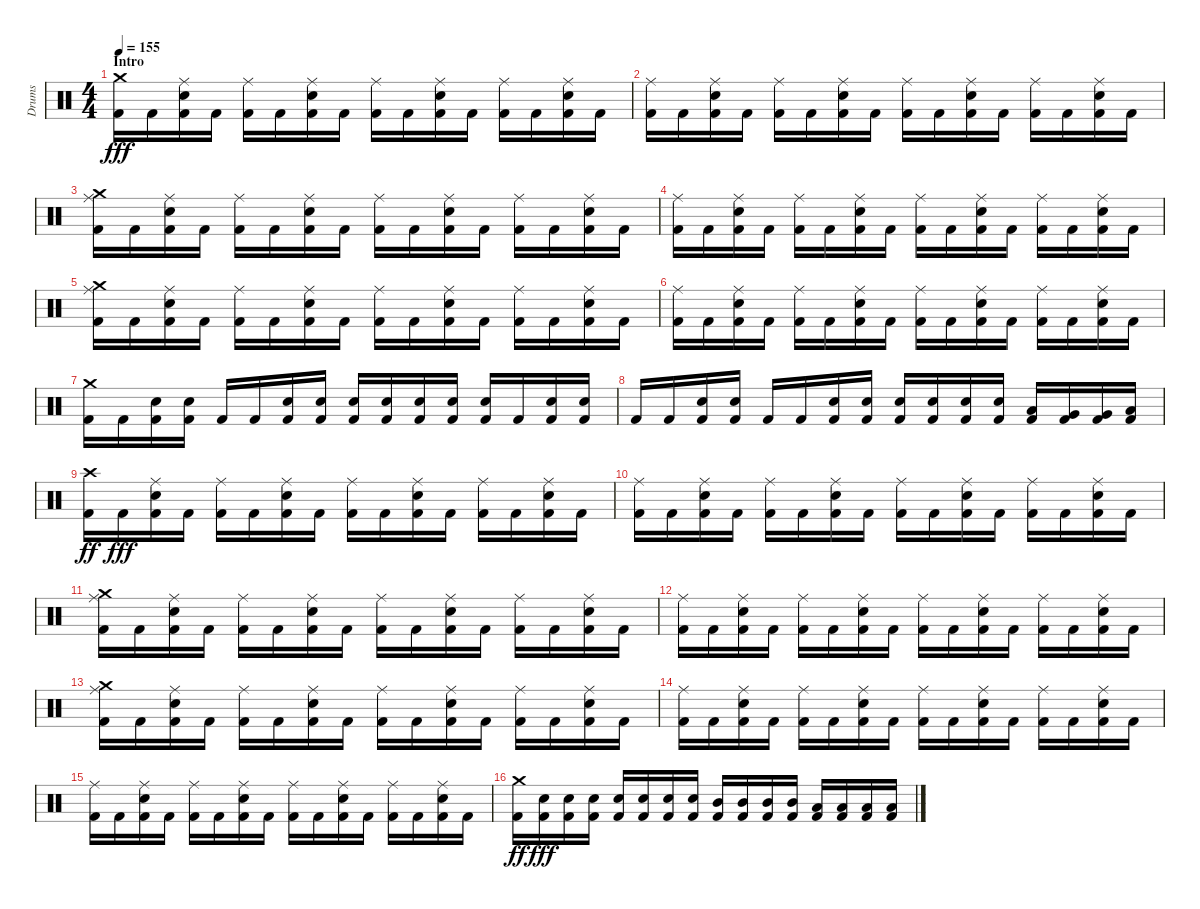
\track ("Drums" "Drums") {instrument percussion}
\staff {score}
\articulation defaults
\ts (4 4)
\section ("" "Intro")
\tempo 155
\clef neutral
\ks c
("Kick (hit) 2" "Crash medium (hit)").16{dy fff} "Kick (hit) 2".16 ("Kick (hit) 2" "Ride (middle)" "Snare (hit) 2").16 "Kick (hit) 2".16 ("Kick (hit) 2" "Ride (middle)").16 "Kick (hit) 2".16 ("Kick (hit) 2" "Ride (middle)" "Snare (hit) 2").16 "Kick (hit) 2".16 ("Kick (hit) 2" "Ride (middle)").16 "Kick (hit) 2".16 ("Kick (hit) 2" "Ride (middle)" "Snare (hit) 2").16 "Kick (hit) 2".16 ("Kick (hit) 2" "Ride (middle)").16 "Kick (hit) 2".16 ("Kick (hit) 2" "Ride (middle)" "Snare (hit) 2").16 "Kick (hit) 2".16 |
("Kick (hit) 2" "Ride (middle)").16 "Kick (hit) 2".16 ("Kick (hit) 2" "Ride (middle)" "Snare (hit) 2").16 "Kick (hit) 2".16 ("Kick (hit) 2" "Ride (middle)").16 "Kick (hit) 2".16 ("Kick (hit) 2" "Ride (middle)" "Snare (hit) 2").16 "Kick (hit) 2".16 ("Kick (hit) 2" "Ride (middle)").16 "Kick (hit) 2".16 ("Kick (hit) 2" "Ride (middle)" "Snare (hit) 2").16 "Kick (hit) 2".16 ("Kick (hit) 2" "Ride (middle)").16 "Kick (hit) 2".16 ("Kick (hit) 2" "Ride (middle)" "Snare (hit) 2").16 "Kick (hit) 2".16 |
("Kick (hit) 2" "Ride (middle)" "Crash medium (hit)").16 "Kick (hit) 2".16 ("Kick (hit) 2" "Ride (middle)" "Snare (hit) 2").16 "Kick (hit) 2".16 ("Kick (hit) 2" "Ride (middle)").16 "Kick (hit) 2".16 ("Kick (hit) 2" "Ride (middle)" "Snare (hit) 2").16 "Kick (hit) 2".16 ("Kick (hit) 2" "Ride (middle)").16 "Kick (hit) 2".16 ("Kick (hit) 2" "Ride (middle)" "Snare (hit) 2").16 "Kick (hit) 2".16 ("Kick (hit) 2" "Ride (middle)").16 "Kick (hit) 2".16 ("Kick (hit) 2" "Ride (middle)" "Snare (hit) 2").16 "Kick (hit) 2".16 |
("Kick (hit) 2" "Ride (middle)").16 "Kick (hit) 2".16 ("Kick (hit) 2" "Ride (middle)" "Snare (hit) 2").16 "Kick (hit) 2".16 ("Kick (hit) 2" "Ride (middle)").16 "Kick (hit) 2".16 ("Kick (hit) 2" "Ride (middle)" "Snare (hit) 2").16 "Kick (hit) 2".16 ("Kick (hit) 2" "Ride (middle)").16 "Kick (hit) 2".16 ("Kick (hit) 2" "Ride (middle)" "Snare (hit) 2").16 "Kick (hit) 2".16 ("Kick (hit) 2" "Ride (middle)").16 "Kick (hit) 2".16 ("Kick (hit) 2" "Ride (middle)" "Snare (hit) 2").16 "Kick (hit) 2".16 |
("Kick (hit) 2" "Ride (middle)" "Crash medium (hit)").16 "Kick (hit) 2".16 ("Kick (hit) 2" "Ride (middle)" "Snare (hit) 2").16 "Kick (hit) 2".16 ("Kick (hit) 2" "Ride (middle)").16 "Kick (hit) 2".16 ("Kick (hit) 2" "Ride (middle)" "Snare (hit) 2").16 "Kick (hit) 2".16 ("Kick (hit) 2" "Ride (middle)").16 "Kick (hit) 2".16 ("Kick (hit) 2" "Ride (middle)" "Snare (hit) 2").16 "Kick (hit) 2".16 ("Kick (hit) 2" "Ride (middle)").16 "Kick (hit) 2".16 ("Kick (hit) 2" "Ride (middle)" "Snare (hit) 2").16 "Kick (hit) 2".16 |
("Kick (hit) 2" "Ride (middle)").16 "Kick (hit) 2".16 ("Kick (hit) 2" "Ride (middle)" "Snare (hit) 2").16 "Kick (hit) 2".16 ("Kick (hit) 2" "Ride (middle)").16 "Kick (hit) 2".16 ("Kick (hit) 2" "Ride (middle)" "Snare (hit) 2").16 "Kick (hit) 2".16 ("Kick (hit) 2" "Ride (middle)").16 "Kick (hit) 2".16 ("Kick (hit) 2" "Ride (middle)" "Snare (hit) 2").16 "Kick (hit) 2".16 ("Kick (hit) 2" "Ride (middle)").16 "Kick (hit) 2".16 ("Kick (hit) 2" "Ride (middle)" "Snare (hit) 2").16 "Kick (hit) 2".16 |
("Kick (hit) 2" "Crash medium (hit)").16 "Kick (hit) 2".16 ("Kick (hit) 2" "Snare (hit) 2").16 ("Kick (hit) 2" "Snare (hit) 2").16 "Kick (hit) 2".16 "Kick (hit) 2".16 ("Kick (hit) 2" "Snare (hit) 2").16 ("Kick (hit) 2" "Snare (hit) 2").16 ("Kick (hit) 2" "Snare (hit) 2").16 ("Kick (hit) 2" "Snare (hit) 2").16 ("Kick (hit) 2" "Snare (hit) 2").16 ("Kick (hit) 2" "Snare (hit) 2").16 ("Kick (hit) 2" "Snare (hit) 2").16 "Kick (hit) 2".16 ("Kick (hit) 2" "Snare (hit) 2").16 ("Kick (hit) 2" "Snare (hit) 2").16 |
"Kick (hit) 2".16 "Kick (hit) 2".16 ("Kick (hit) 2" "Snare (hit) 2").16 ("Kick (hit) 2" "Snare (hit) 2").16 "Kick (hit) 2".16 "Kick (hit) 2".16 ("Kick (hit) 2" "Snare (hit) 2").16 ("Kick (hit) 2" "Snare (hit) 2").16 ("Kick (hit) 2" "Snare (hit) 2").16 ("Kick (hit) 2" "Snare (hit) 2").16 ("Kick (hit) 2" "Snare (hit) 2").16 ("Kick (hit) 2" "Snare (hit) 2").16 ("Kick (hit) 2" "Low Tom (hit)").16 ("Kick (hit) 2" "Very Low Tom (hit)").16 ("Kick (hit) 2" "Very Low Tom (hit)").16 ("Kick (hit) 2" "Low Floor Tom (hit)").16 |
("Kick (hit) 2" "Crash high (hit)").16{dy ff} "Kick (hit) 2".16{dy fff} ("Kick (hit) 2" "Ride (middle)" "Snare (hit) 2").16 "Kick (hit) 2".16 ("Kick (hit) 2" "Ride (middle)").16 "Kick (hit) 2".16 ("Kick (hit) 2" "Ride (middle)" "Snare (hit) 2").16 "Kick (hit) 2".16 ("Kick (hit) 2" "Ride (middle)").16 "Kick (hit) 2".16 ("Kick (hit) 2" "Ride (middle)" "Snare (hit) 2").16 "Kick (hit) 2".16 ("Kick (hit) 2" "Ride (middle)").16 "Kick (hit) 2".16 ("Kick (hit) 2" "Ride (middle)" "Snare (hit) 2").16 "Kick (hit) 2".16 |
("Kick (hit) 2" "Ride (middle)").16 "Kick (hit) 2".16 ("Kick (hit) 2" "Ride (middle)" "Snare (hit) 2").16 "Kick (hit) 2".16 ("Kick (hit) 2" "Ride (middle)").16 "Kick (hit) 2".16 ("Kick (hit) 2" "Ride (middle)" "Snare (hit) 2").16 "Kick (hit) 2".16 ("Kick (hit) 2" "Ride (middle)").16 "Kick (hit) 2".16 ("Kick (hit) 2" "Ride (middle)" "Snare (hit) 2").16 "Kick (hit) 2".16 ("Kick (hit) 2" "Ride (middle)").16 "Kick (hit) 2".16 ("Kick (hit) 2" "Ride (middle)" "Snare (hit) 2").16 "Kick (hit) 2".16 |
("Kick (hit) 2" "Ride (middle)" "Crash medium (hit)").16 "Kick (hit) 2".16 ("Kick (hit) 2" "Ride (middle)" "Snare (hit) 2").16 "Kick (hit) 2".16 ("Kick (hit) 2" "Ride (middle)").16 "Kick (hit) 2".16 ("Kick (hit) 2" "Ride (middle)" "Snare (hit) 2").16 "Kick (hit) 2".16 ("Kick (hit) 2" "Ride (middle)").16 "Kick (hit) 2".16 ("Kick (hit) 2" "Ride (middle)" "Snare (hit) 2").16 "Kick (hit) 2".16 ("Kick (hit) 2" "Ride (middle)").16 "Kick (hit) 2".16 ("Kick (hit) 2" "Ride (middle)" "Snare (hit) 2").16 "Kick (hit) 2".16 |
("Kick (hit) 2" "Ride (middle)").16 "Kick (hit) 2".16 ("Kick (hit) 2" "Ride (middle)" "Snare (hit) 2").16 "Kick (hit) 2".16 ("Kick (hit) 2" "Ride (middle)").16 "Kick (hit) 2".16 ("Kick (hit) 2" "Ride (middle)" "Snare (hit) 2").16 "Kick (hit) 2".16 ("Kick (hit) 2" "Ride (middle)").16 "Kick (hit) 2".16 ("Kick (hit) 2" "Ride (middle)" "Snare (hit) 2").16 "Kick (hit) 2".16 ("Kick (hit) 2" "Ride (middle)").16 "Kick (hit) 2".16 ("Kick (hit) 2" "Ride (middle)" "Snare (hit) 2").16 "Kick (hit) 2".16 |
("Kick (hit) 2" "Ride (middle)" "Crash medium (hit)").16 "Kick (hit) 2".16 ("Kick (hit) 2" "Ride (middle)" "Snare (hit) 2").16 "Kick (hit) 2".16 ("Kick (hit) 2" "Ride (middle)").16 "Kick (hit) 2".16 ("Kick (hit) 2" "Ride (middle)" "Snare (hit) 2").16 "Kick (hit) 2".16 ("Kick (hit) 2" "Ride (middle)").16 "Kick (hit) 2".16 ("Kick (hit) 2" "Ride (middle)" "Snare (hit) 2").16 "Kick (hit) 2".16 ("Kick (hit) 2" "Ride (middle)").16 "Kick (hit) 2".16 ("Kick (hit) 2" "Ride (middle)" "Snare (hit) 2").16 "Kick (hit) 2".16 |
("Kick (hit) 2" "Ride (middle)").16 "Kick (hit) 2".16 ("Kick (hit) 2" "Ride (middle)" "Snare (hit) 2").16 "Kick (hit) 2".16 ("Kick (hit) 2" "Ride (middle)").16 "Kick (hit) 2".16 ("Kick (hit) 2" "Ride (middle)" "Snare (hit) 2").16 "Kick (hit) 2".16 ("Kick (hit) 2" "Ride (middle)").16 "Kick (hit) 2".16 ("Kick (hit) 2" "Ride (middle)" "Snare (hit) 2").16 "Kick (hit) 2".16 ("Kick (hit) 2" "Ride (middle)").16 "Kick (hit) 2".16 ("Kick (hit) 2" "Ride (middle)" "Snare (hit) 2").16 "Kick (hit) 2".16 |
("Kick (hit) 2" "Ride (middle)").16 "Kick (hit) 2".16 ("Kick (hit) 2" "Ride (middle)" "Snare (hit) 2").16 "Kick (hit) 2".16 ("Kick (hit) 2" "Ride (middle)").16 "Kick (hit) 2".16 ("Kick (hit) 2" "Ride (middle)" "Snare (hit) 2").16 "Kick (hit) 2".16 ("Kick (hit) 2" "Ride (middle)").16 "Kick (hit) 2".16 ("Kick (hit) 2" "Ride (middle)" "Snare (hit) 2").16 "Kick (hit) 2".16 ("Kick (hit) 2" "Ride (middle)").16 "Kick (hit) 2".16 ("Kick (hit) 2" "Ride (middle)" "Snare (hit) 2").16 "Kick (hit) 2".16 |
("Kick (hit) 2" "Crash medium (hit)").16{dy ff} ("Kick (hit) 2" "Snare (hit) 2").16{dy fff} ("Kick (hit) 2" "Snare (hit) 2").16 ("Kick (hit) 2" "Snare (hit) 2").16 ("Kick (hit) 2" "Snare (hit) 2").16 ("Kick (hit) 2" "Snare (hit) 2").16 ("Kick (hit) 2" "Snare (hit) 2").16 ("Kick (hit) 2" "Snare (hit) 2").16 ("Kick (hit) 2" "Mid Tom (hit)").16 ("Kick (hit) 2" "Mid Tom (hit)").16 ("Kick (hit) 2" "Mid Tom (hit)").16 ("Kick (hit) 2" "Mid Tom (hit)").16 ("Kick (hit) 2" "Low Tom (hit)").16 ("Kick (hit) 2" "Low Tom (hit)").16 ("Kick (hit) 2" "Low Tom (hit)").16 ("Kick (hit) 2" "Low Tom (hit)").16
